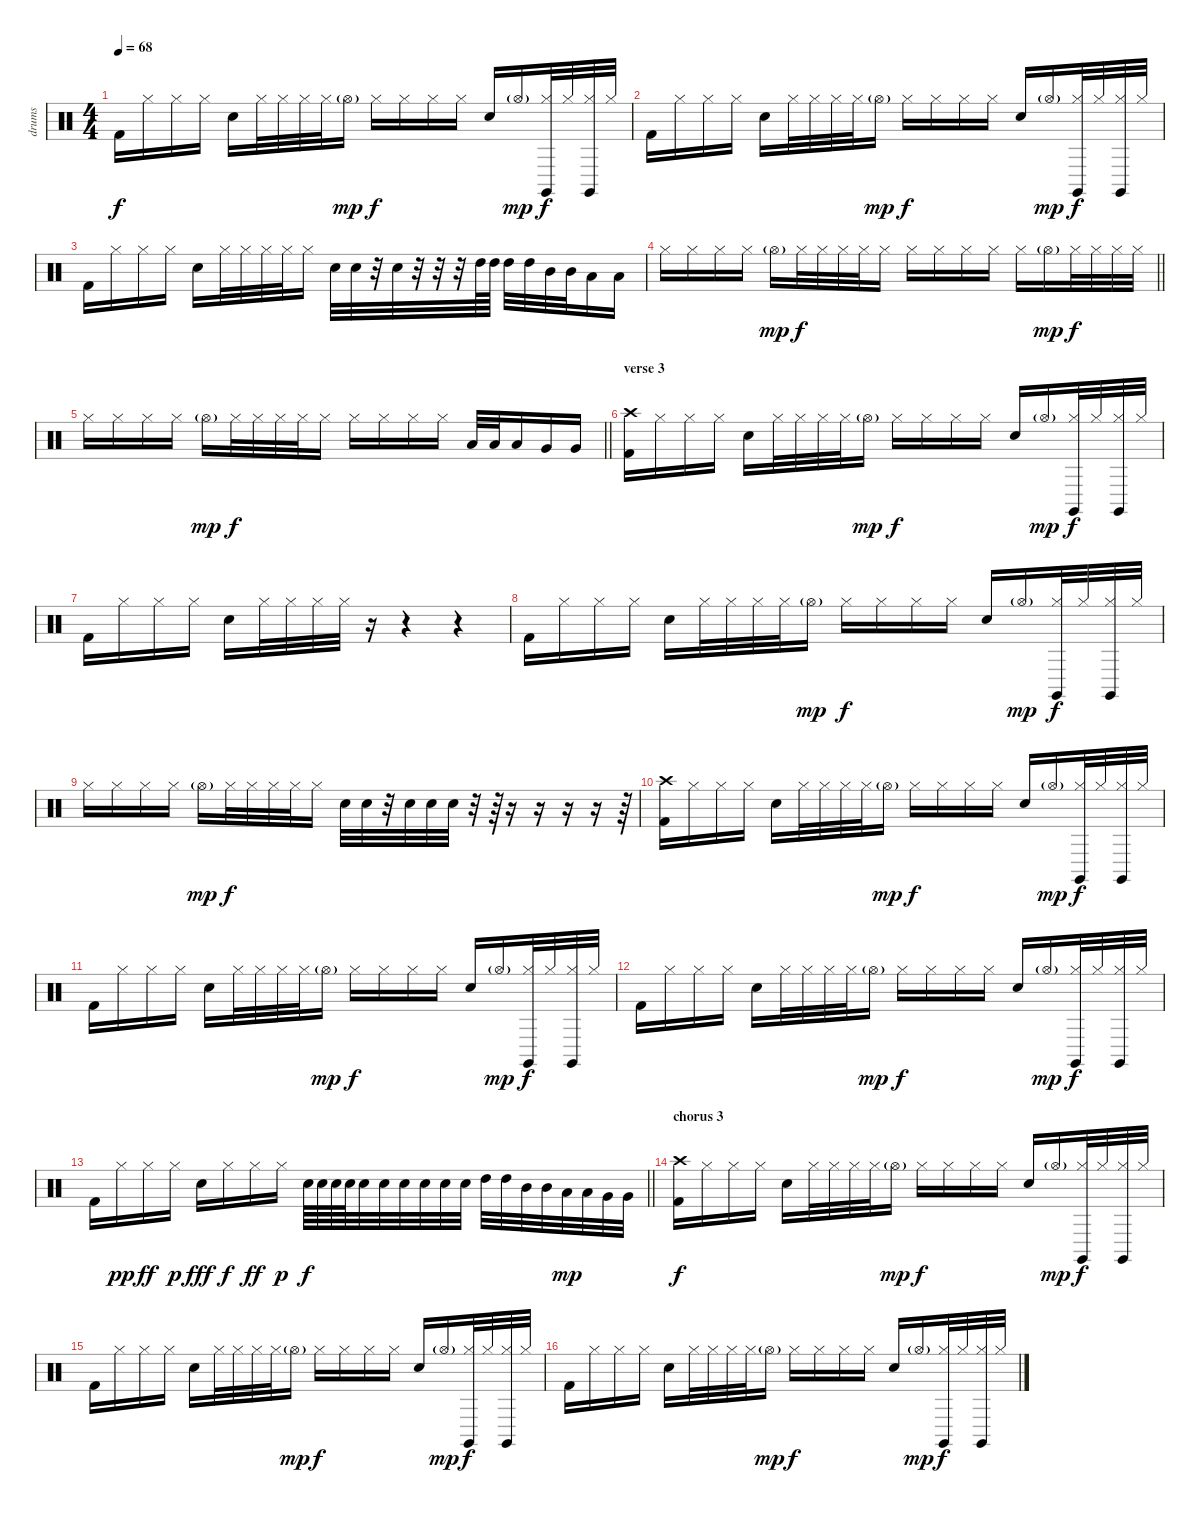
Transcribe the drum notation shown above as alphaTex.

\track ("drums" "drums") {instrument percussion}
\staff {score}
\articulation defaults
\ts (4 4)
\tempo 68
\clef neutral
\ks c "Kick (hit) 2".16{dy f} "Hi-Hat (closed)".16 "Hi-Hat (closed)".16 "Hi-Hat (closed)".16 "Electric Snare (hit)".16 "Hi-Hat (closed)".32 "Hi-Hat (closed)".32 "Hi-Hat (closed)".32 "Hi-Hat (closed)".32 "Hi-Hat (open)"{g}.16{dy mp} "Hi-Hat (closed)".16{dy f} "Hi-Hat (closed)".16 "Hi-Hat (closed)".16 "Hi-Hat (closed)".16 "Electric Snare (hit)".16 "Hi-Hat (open)"{g}.16{dy mp}
("Hi-Hat (closed)" "Claves (hit)").32{dy f} "Hi-Hat (closed)".32 ("Hi-Hat (closed)" "Claves (hit)").32 "Hi-Hat (closed)".32 |
"Kick (hit) 2".16 "Hi-Hat (closed)".16 "Hi-Hat (closed)".16 "Hi-Hat (closed)".16 "Electric Snare (hit)".16 "Hi-Hat (closed)".32 "Hi-Hat (closed)".32 "Hi-Hat (closed)".32 "Hi-Hat (closed)".32 "Hi-Hat (open)"{g}.16{dy mp} "Hi-Hat (closed)".16{dy f} "Hi-Hat (closed)".16 "Hi-Hat (closed)".16 "Hi-Hat (closed)".16 "Electric Snare (hit)".16 "Hi-Hat (open)"{g}.16{dy mp} ("Hi-Hat (closed)" "Claves (hit)").32{dy f} "Hi-Hat (closed)".32 ("Hi-Hat (closed)" "Claves (hit)").32 "Hi-Hat (closed)".32 |
"Kick (hit) 2".16 "Hi-Hat (closed)".16 "Hi-Hat (closed)".16 "Hi-Hat (closed)".16 "Electric Snare (hit)".16 "Hi-Hat (closed)".32 "Hi-Hat (closed)".32 "Hi-Hat (closed)".32 "Hi-Hat (closed)".32 "Hi-Hat (closed)".16 "Electric Snare (hit)".32 "Electric Snare (hit)".32 r.32 "Electric Snare (hit)".32 r.32 r.32 r.32 "High Tom (hit)".64 "High Tom (hit)".64 "High Tom (hit)".32 "High Tom (hit)".32 "Mid Tom (hit)".32 "Mid Tom (hit)".32 "Low Tom (hit)".16 "Low Tom (hit)".16 |
\barLineRight lightlight "Hi-Hat (closed)".16 "Hi-Hat (closed)".16 "Hi-Hat (closed)".16 "Hi-Hat (closed)".16 "Hi-Hat (open)"{g}.16{dy mp} "Hi-Hat (closed)".32{dy f} "Hi-Hat (closed)".32 "Hi-Hat (closed)".32 "Hi-Hat (closed)".32 "Hi-Hat (closed)".16 "Hi-Hat (closed)".16 "Hi-Hat (closed)".16 "Hi-Hat (closed)".16 "Hi-Hat (closed)".16 "Hi-Hat (closed)".16 "Hi-Hat (open)"{g}.16{dy mp} "Hi-Hat (closed)".32{dy f} "Hi-Hat (closed)".32 "Hi-Hat (closed)".32 "Hi-Hat (closed)".32
|
\barLineRight lightlight "Hi-Hat (closed)".16 "Hi-Hat (closed)".16 "Hi-Hat (closed)".16 "Hi-Hat (closed)".16 "Hi-Hat (open)"{g}.16{dy mp} "Hi-Hat (closed)".32{dy f} "Hi-Hat (closed)".32 "Hi-Hat (closed)".32 "Hi-Hat (closed)".32 "Hi-Hat (closed)".16 "Hi-Hat (closed)".16 "Hi-Hat (closed)".16 "Hi-Hat (closed)".16 "Hi-Hat (closed)".16 "Low Tom (hit)".32 "Low Tom (hit)".32 "Low Tom (hit)".16 "Very Low Tom (hit)".16 "Very Low Tom (hit)".16
|
\section ("" "verse 3")
("Kick (hit) 2" "Crash high (hit)").16 "Hi-Hat (closed)".16 "Hi-Hat (closed)".16 "Hi-Hat (closed)".16 "Electric Snare (hit)".16 "Hi-Hat (closed)".32 "Hi-Hat (closed)".32 "Hi-Hat (closed)".32 "Hi-Hat (closed)".32 "Hi-Hat (open)"{g}.16{dy mp} "Hi-Hat (closed)".16{dy f} "Hi-Hat (closed)".16 "Hi-Hat (closed)".16 "Hi-Hat (closed)".16 "Electric Snare (hit)".16 "Hi-Hat (open)"{g}.16{dy mp} ("Hi-Hat (closed)" "Claves (hit)").32{dy f} "Hi-Hat (closed)".32 ("Hi-Hat (closed)" "Claves (hit)").32 "Hi-Hat (closed)".32 |
"Kick (hit) 2".16 "Hi-Hat (closed)".16 "Hi-Hat (closed)".16 "Hi-Hat (closed)".16 "Electric Snare (hit)".16 "Hi-Hat (closed)".32 "Hi-Hat (closed)".32 "Hi-Hat (closed)".32 "Hi-Hat (closed)".32 r.16 r.4 r.4 |
"Kick (hit) 2".16 "Hi-Hat (closed)".16 "Hi-Hat (closed)".16 "Hi-Hat (closed)".16 "Electric Snare (hit)".16 "Hi-Hat (closed)".32 "Hi-Hat (closed)".32 "Hi-Hat (closed)".32 "Hi-Hat (closed)".32 "Hi-Hat (open)"{g}.16{dy mp} "Hi-Hat (closed)".16{dy f} "Hi-Hat (closed)".16 "Hi-Hat (closed)".16 "Hi-Hat (closed)".16 "Electric Snare (hit)".16 "Hi-Hat (open)"{g}.16{dy mp} ("Hi-Hat (closed)" "Claves (hit)").32{dy f} "Hi-Hat (closed)".32 ("Hi-Hat (closed)" "Claves (hit)").32 "Hi-Hat (closed)".32 |
"Hi-Hat (closed)".16 "Hi-Hat (closed)".16 "Hi-Hat (closed)".16 "Hi-Hat (closed)".16 "Hi-Hat (open)"{g}.16{dy mp} "Hi-Hat (closed)".32{dy f} "Hi-Hat (closed)".32 "Hi-Hat (closed)".32 "Hi-Hat (closed)".32 "Hi-Hat (closed)".16 "Electric Snare (hit)".32 "Electric Snare (hit)".32 r.32 "Electric Snare (hit)".32 "Electric Snare (hit)".32 "Electric Snare (hit)".32 r.32 r.64 r.16 r.16 r.16 r.16 r.64 |
("Kick (hit) 2" "Crash high (hit)").16 "Hi-Hat (closed)".16 "Hi-Hat (closed)".16 "Hi-Hat (closed)".16 "Electric Snare (hit)".16 "Hi-Hat (closed)".32 "Hi-Hat (closed)".32 "Hi-Hat (closed)".32 "Hi-Hat (closed)".32 "Hi-Hat (open)"{g}.16{dy mp} "Hi-Hat (closed)".16{dy f} "Hi-Hat (closed)".16 "Hi-Hat (closed)".16 "Hi-Hat (closed)".16 "Electric Snare (hit)".16 "Hi-Hat (open)"{g}.16{dy mp} ("Hi-Hat (closed)" "Claves (hit)").32{dy f} "Hi-Hat (closed)".32 ("Hi-Hat (closed)" "Claves (hit)").32 "Hi-Hat (closed)".32 |
"Kick (hit) 2".16 "Hi-Hat (closed)".16 "Hi-Hat (closed)".16 "Hi-Hat (closed)".16 "Electric Snare (hit)".16 "Hi-Hat (closed)".32 "Hi-Hat (closed)".32 "Hi-Hat (closed)".32 "Hi-Hat (closed)".32 "Hi-Hat (open)"{g}.16{dy mp} "Hi-Hat (closed)".16{dy f} "Hi-Hat (closed)".16 "Hi-Hat (closed)".16 "Hi-Hat (closed)".16 "Electric Snare (hit)".16 "Hi-Hat (open)"{g}.16{dy mp} ("Hi-Hat (closed)" "Claves (hit)").32{dy f} "Hi-Hat (closed)".32 ("Hi-Hat (closed)" "Claves (hit)").32 "Hi-Hat (closed)".32 |
"Kick (hit) 2".16 "Hi-Hat (closed)".16 "Hi-Hat (closed)".16 "Hi-Hat (closed)".16 "Electric Snare (hit)".16 "Hi-Hat (closed)".32 "Hi-Hat (closed)".32 "Hi-Hat (closed)".32 "Hi-Hat (closed)".32 "Hi-Hat (open)"{g}.16{dy mp} "Hi-Hat (closed)".16{dy f} "Hi-Hat (closed)".16 "Hi-Hat (closed)".16 "Hi-Hat (closed)".16 "Electric Snare (hit)".16 "Hi-Hat (open)"{g}.16{dy mp} ("Hi-Hat (closed)" "Claves (hit)").32{dy f} "Hi-Hat (closed)".32 ("Hi-Hat (closed)" "Claves (hit)").32 "Hi-Hat (closed)".32 |
\barLineRight lightlight "Kick (hit) 2".16 "Hi-Hat (closed)".16{dy pp} "Hi-Hat (closed)".16{dy ff} "Hi-Hat (closed)".16{dy p} "Electric Snare (hit)".16{dy fff} "Hi-Hat (closed)".16{dy f} "Hi-Hat (closed)".16{dy ff} "Hi-Hat (closed)".16{dy p} "Electric Snare (hit)".64{dy f} "Electric Snare (hit)".64 "Electric Snare (hit)".64 "Electric Snare (hit)".64 "Electric Snare (hit)".32 "Electric Snare (hit)".32 "Electric Snare (hit)".32 "Electric Snare (hit)".32 "Electric Snare (hit)".32 "Electric Snare (hit)".32 "High Tom (hit)".32 "High Tom (hit)".32 "Mid Tom (hit)".32 "Mid Tom (hit)".32 "Low Tom (hit)".32{dy mp} "Low Tom (hit)".32 "Very Low Tom (hit)".32 "Very Low Tom (hit)".32
|
\section ("" "chorus 3")
("Kick (hit) 2" "Crash high (hit)").16{dy f} "Hi-Hat (closed)".16 "Hi-Hat (closed)".16 "Hi-Hat (closed)".16 "Electric Snare (hit)".16 "Hi-Hat (closed)".32 "Hi-Hat (closed)".32 "Hi-Hat (closed)".32 "Hi-Hat (closed)".32 "Hi-Hat (open)"{g}.16{dy mp} "Hi-Hat (closed)".16{dy f} "Hi-Hat (closed)".16 "Hi-Hat (closed)".16 "Hi-Hat (closed)".16 "Electric Snare (hit)".16 "Hi-Hat (open)"{g}.16{dy mp} ("Hi-Hat (closed)" "Claves (hit)").32{dy f} "Hi-Hat (closed)".32 ("Hi-Hat (closed)" "Claves (hit)").32 "Hi-Hat (closed)".32 |
"Kick (hit) 2".16 "Hi-Hat (closed)".16 "Hi-Hat (closed)".16 "Hi-Hat (closed)".16 "Electric Snare (hit)".16 "Hi-Hat (closed)".32 "Hi-Hat (closed)".32 "Hi-Hat (closed)".32 "Hi-Hat (closed)".32 "Hi-Hat (open)"{g}.16{dy mp} "Hi-Hat (closed)".16{dy f} "Hi-Hat (closed)".16 "Hi-Hat (closed)".16 "Hi-Hat (closed)".16 "Electric Snare (hit)".16 "Hi-Hat (open)"{g}.16{dy mp} ("Hi-Hat (closed)" "Claves (hit)").32{dy f} "Hi-Hat (closed)".32 ("Hi-Hat (closed)" "Claves (hit)").32 "Hi-Hat (closed)".32 |
"Kick (hit) 2".16 "Hi-Hat (closed)".16 "Hi-Hat (closed)".16 "Hi-Hat (closed)".16 "Electric Snare (hit)".16 "Hi-Hat (closed)".32 "Hi-Hat (closed)".32 "Hi-Hat (closed)".32 "Hi-Hat (closed)".32 "Hi-Hat (open)"{g}.16{dy mp} "Hi-Hat (closed)".16{dy f} "Hi-Hat (closed)".16 "Hi-Hat (closed)".16 "Hi-Hat (closed)".16 "Electric Snare (hit)".16 "Hi-Hat (open)"{g}.16{dy mp} ("Hi-Hat (closed)" "Claves (hit)").32{dy f} "Hi-Hat (closed)".32 ("Hi-Hat (closed)" "Claves (hit)").32 "Hi-Hat (closed)".32
